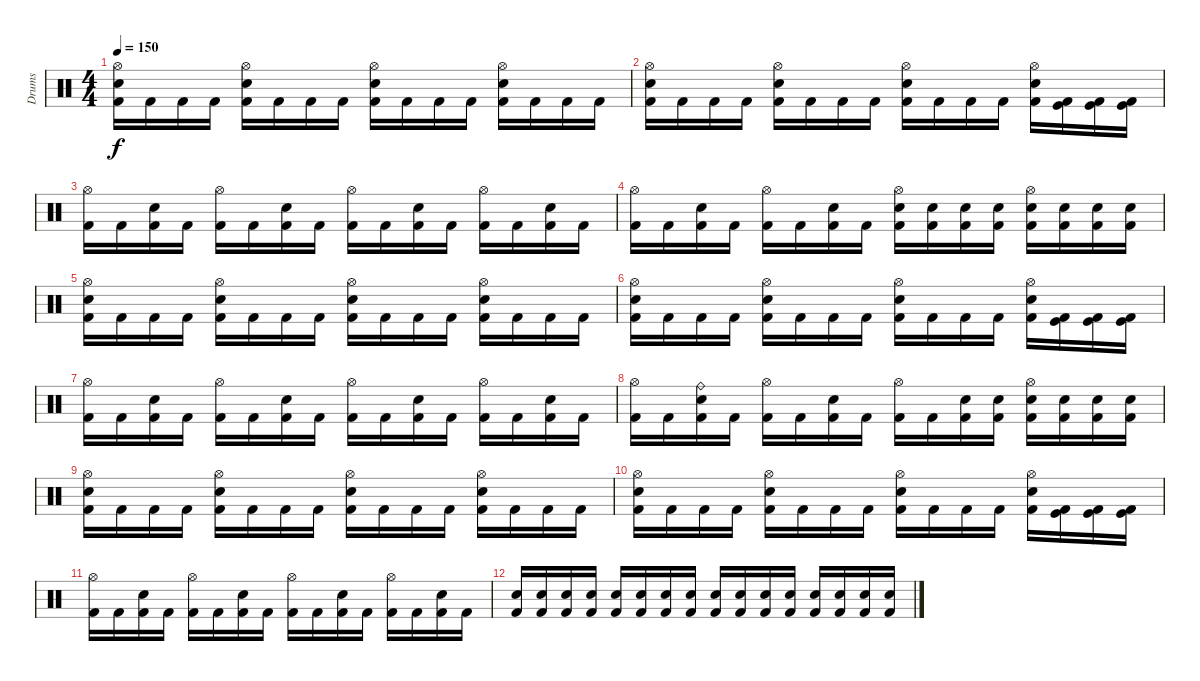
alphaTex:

\track ("Drums" "Drums") {instrument percussion}
\staff {score}
\articulation defaults
\ts (4 4)
\tempo 150
\clef neutral
\ks c
("Hi-Hat (open)" "Electric Snare (hit)" "Kick (hit) 2").16{dy f} "Kick (hit) 2".16 "Kick (hit) 2".16 "Kick (hit) 2".16 ("Hi-Hat (open)" "Electric Snare (hit)" "Kick (hit) 2").16 "Kick (hit) 2".16 "Kick (hit) 2".16 "Kick (hit) 2".16 ("Hi-Hat (open)" "Electric Snare (hit)" "Kick (hit) 2").16 "Kick (hit) 2".16 "Kick (hit) 2".16 "Kick (hit) 2".16 ("Hi-Hat (open)" "Electric Snare (hit)" "Kick (hit) 2").16 "Kick (hit) 2".16 "Kick (hit) 2".16 "Kick (hit) 2".16 |
("Hi-Hat (open)" "Electric Snare (hit)" "Kick (hit) 2").16 "Kick (hit) 2".16 "Kick (hit) 2".16 "Kick (hit) 2".16 ("Hi-Hat (open)" "Electric Snare (hit)" "Kick (hit) 2").16 "Kick (hit) 2".16 "Kick (hit) 2".16 "Kick (hit) 2".16 ("Hi-Hat (open)" "Electric Snare (hit)" "Kick (hit) 2").16 "Kick (hit) 2".16 "Kick (hit) 2".16 "Kick (hit) 2".16 ("Hi-Hat (open)" "Electric Snare (hit)" "Kick (hit) 2").16 ("Kick (hit)" "Kick (hit) 2").16 ("Kick (hit)" "Kick (hit) 2").16 ("Kick (hit)" "Kick (hit) 2").16 |
("Hi-Hat (open)" "Kick (hit) 2").16 "Kick (hit) 2".16 ("Electric Snare (hit)" "Kick (hit) 2").16 "Kick (hit) 2".16 ("Hi-Hat (open)" "Kick (hit) 2").16 "Kick (hit) 2".16 ("Electric Snare (hit)" "Kick (hit) 2").16 "Kick (hit) 2".16 ("Hi-Hat (open)" "Kick (hit) 2").16 "Kick (hit) 2".16 ("Electric Snare (hit)" "Kick (hit) 2").16 "Kick (hit) 2".16 ("Hi-Hat (open)" "Kick (hit) 2").16 "Kick (hit) 2".16 ("Electric Snare (hit)" "Kick (hit) 2").16 "Kick (hit) 2".16 |
("Hi-Hat (open)" "Kick (hit) 2").16 "Kick (hit) 2".16 ("Electric Snare (hit)" "Kick (hit) 2").16 "Kick (hit) 2".16 ("Hi-Hat (open)" "Kick (hit) 2").16 "Kick (hit) 2".16 ("Electric Snare (hit)" "Kick (hit) 2").16 "Kick (hit) 2".16 ("Hi-Hat (open)" "Snare (hit) 2" "Kick (hit) 2").16 ("Snare (hit) 2" "Kick (hit) 2").16 ("Snare (hit) 2" "Kick (hit) 2").16 ("Snare (hit) 2" "Kick (hit) 2").16 ("Hi-Hat (open)" "Snare (hit) 2" "Kick (hit) 2").16 ("Snare (hit) 2" "Kick (hit) 2").16 ("Snare (hit) 2" "Kick (hit) 2").16 ("Snare (hit) 2" "Kick (hit) 2").16 |
("Hi-Hat (open)" "Electric Snare (hit)" "Kick (hit) 2").16 "Kick (hit) 2".16 "Kick (hit) 2".16 "Kick (hit) 2".16 ("Hi-Hat (open)" "Electric Snare (hit)" "Kick (hit) 2").16 "Kick (hit) 2".16 "Kick (hit) 2".16 "Kick (hit) 2".16 ("Hi-Hat (open)" "Electric Snare (hit)" "Kick (hit) 2").16 "Kick (hit) 2".16 "Kick (hit) 2".16 "Kick (hit) 2".16 ("Hi-Hat (open)" "Electric Snare (hit)" "Kick (hit) 2").16 "Kick (hit) 2".16 "Kick (hit) 2".16 "Kick (hit) 2".16 |
("Hi-Hat (open)" "Electric Snare (hit)" "Kick (hit) 2").16 "Kick (hit) 2".16 "Kick (hit) 2".16 "Kick (hit) 2".16 ("Hi-Hat (open)" "Electric Snare (hit)" "Kick (hit) 2").16 "Kick (hit) 2".16 "Kick (hit) 2".16 "Kick (hit) 2".16 ("Hi-Hat (open)" "Electric Snare (hit)" "Kick (hit) 2").16 "Kick (hit) 2".16 "Kick (hit) 2".16 "Kick (hit) 2".16 ("Hi-Hat (open)" "Electric Snare (hit)" "Kick (hit) 2").16 ("Kick (hit)" "Kick (hit) 2").16 ("Kick (hit)" "Kick (hit) 2").16 ("Kick (hit)" "Kick (hit) 2").16 |
("Hi-Hat (open)" "Kick (hit) 2").16 "Kick (hit) 2".16 ("Electric Snare (hit)" "Kick (hit) 2").16 "Kick (hit) 2".16 ("Hi-Hat (open)" "Kick (hit) 2").16 "Kick (hit) 2".16 ("Electric Snare (hit)" "Kick (hit) 2").16 "Kick (hit) 2".16 ("Hi-Hat (open)" "Kick (hit) 2").16 "Kick (hit) 2".16 ("Electric Snare (hit)" "Kick (hit) 2").16 "Kick (hit) 2".16 ("Hi-Hat (open)" "Kick (hit) 2").16 "Kick (hit) 2".16 ("Electric Snare (hit)" "Kick (hit) 2").16 "Kick (hit) 2".16 |
("Hi-Hat (open)" "Kick (hit) 2").16 "Kick (hit) 2".16 ("Ride (bell)" "Electric Snare (hit)" "Kick (hit) 2").16 "Kick (hit) 2".16 ("Hi-Hat (open)" "Kick (hit) 2").16 "Kick (hit) 2".16 ("Electric Snare (hit)" "Kick (hit) 2").16 "Kick (hit) 2".16 ("Hi-Hat (open)" "Kick (hit) 2").16 "Kick (hit) 2".16 ("Snare (hit) 2" "Kick (hit) 2").16 ("Snare (hit) 2" "Kick (hit) 2").16 ("Hi-Hat (open)" "Snare (hit) 2" "Kick (hit) 2").16 ("Snare (hit) 2" "Kick (hit) 2").16 ("Snare (hit) 2" "Kick (hit) 2").16 ("Snare (hit) 2" "Kick (hit) 2").16 |
("Hi-Hat (open)" "Electric Snare (hit)" "Kick (hit) 2").16 "Kick (hit) 2".16 "Kick (hit) 2".16 "Kick (hit) 2".16 ("Hi-Hat (open)" "Electric Snare (hit)" "Kick (hit) 2").16 "Kick (hit) 2".16 "Kick (hit) 2".16 "Kick (hit) 2".16 ("Hi-Hat (open)" "Electric Snare (hit)" "Kick (hit) 2").16 "Kick (hit) 2".16 "Kick (hit) 2".16 "Kick (hit) 2".16 ("Hi-Hat (open)" "Electric Snare (hit)" "Kick (hit) 2").16 "Kick (hit) 2".16 "Kick (hit) 2".16 "Kick (hit) 2".16 |
("Hi-Hat (open)" "Electric Snare (hit)" "Kick (hit) 2").16 "Kick (hit) 2".16 "Kick (hit) 2".16 "Kick (hit) 2".16 ("Hi-Hat (open)" "Electric Snare (hit)" "Kick (hit) 2").16 "Kick (hit) 2".16 "Kick (hit) 2".16 "Kick (hit) 2".16 ("Hi-Hat (open)" "Electric Snare (hit)" "Kick (hit) 2").16 "Kick (hit) 2".16 "Kick (hit) 2".16 "Kick (hit) 2".16 ("Hi-Hat (open)" "Electric Snare (hit)" "Kick (hit) 2").16 ("Kick (hit)" "Kick (hit) 2").16 ("Kick (hit)" "Kick (hit) 2").16 ("Kick (hit)" "Kick (hit) 2").16 |
("Hi-Hat (open)" "Kick (hit) 2").16 "Kick (hit) 2".16 ("Electric Snare (hit)" "Kick (hit) 2").16 "Kick (hit) 2".16 ("Hi-Hat (open)" "Kick (hit) 2").16 "Kick (hit) 2".16 ("Electric Snare (hit)" "Kick (hit) 2").16 "Kick (hit) 2".16 ("Hi-Hat (open)" "Kick (hit) 2").16 "Kick (hit) 2".16 ("Electric Snare (hit)" "Kick (hit) 2").16 "Kick (hit) 2".16 ("Hi-Hat (open)" "Kick (hit) 2").16 "Kick (hit) 2".16 ("Electric Snare (hit)" "Kick (hit) 2").16 "Kick (hit) 2".16 |
("Snare (hit) 2" "Kick (hit) 2").16 ("Snare (hit) 2" "Kick (hit) 2").16 ("Snare (hit) 2" "Kick (hit) 2").16 ("Snare (hit) 2" "Kick (hit) 2").16 ("Snare (hit) 2" "Kick (hit) 2").16 ("Snare (hit) 2" "Kick (hit) 2").16 ("Snare (hit) 2" "Kick (hit) 2").16 ("Snare (hit) 2" "Kick (hit) 2").16 ("Snare (hit) 2" "Kick (hit) 2").16 ("Snare (hit) 2" "Kick (hit) 2").16 ("Snare (hit) 2" "Kick (hit) 2").16 ("Snare (hit) 2" "Kick (hit) 2").16 ("Snare (hit) 2" "Kick (hit) 2").16 ("Snare (hit) 2" "Kick (hit) 2").16 ("Snare (hit) 2" "Kick (hit) 2").16 ("Snare (hit) 2" "Kick (hit) 2").16
